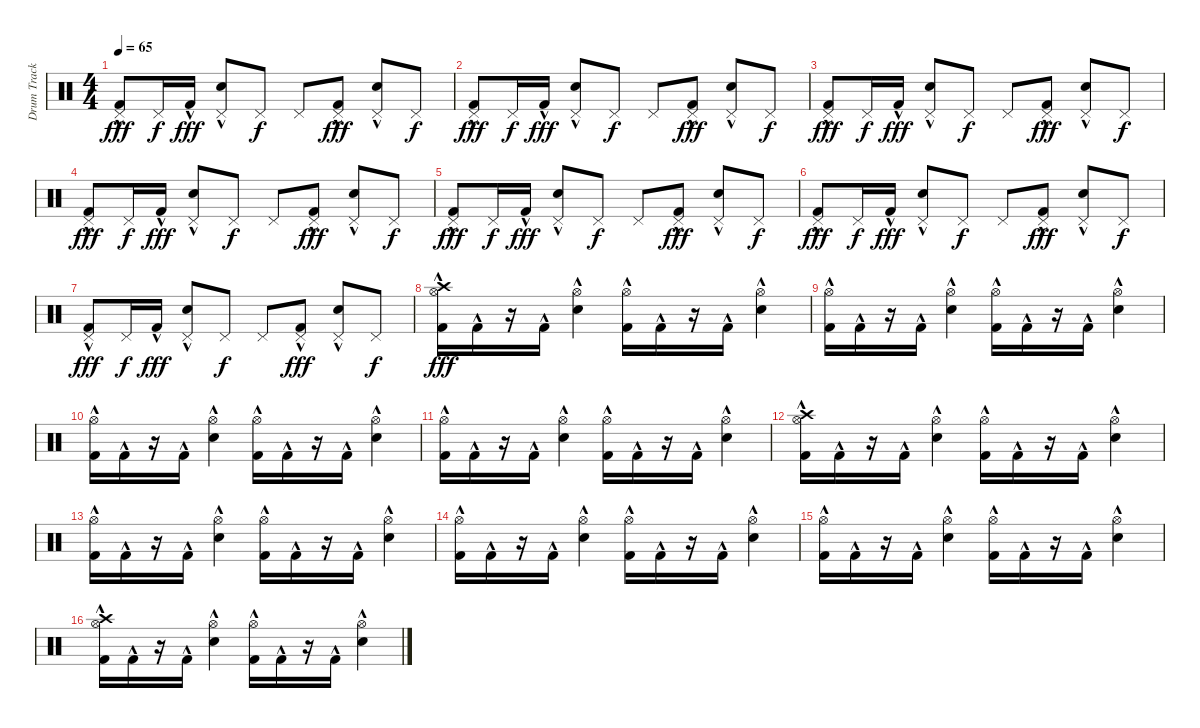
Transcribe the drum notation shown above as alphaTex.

\track ("Drum Track" "Drum Track") {instrument percussion}
\staff {score}
\articulation defaults
\ts (4 4)
\tempo 65
\clef neutral
\ks c
("Pedal Hi-Hat (hit)" "Kick (hit) 2"{hac}).8{dy fff} "Pedal Hi-Hat (hit)".16{dy f} "Kick (hit) 2"{hac}.16{dy fff} ("Pedal Hi-Hat (hit)" "Electric Snare (hit)"{hac}).8 "Pedal Hi-Hat (hit)".8{dy f} "Pedal Hi-Hat (hit)".8 ("Pedal Hi-Hat (hit)" "Kick (hit) 2"{hac}).8{dy fff} ("Pedal Hi-Hat (hit)" "Electric Snare (hit)"{hac}).8 "Pedal Hi-Hat (hit)".8{dy f} |
("Pedal Hi-Hat (hit)" "Kick (hit) 2"{hac}).8{dy fff} "Pedal Hi-Hat (hit)".16{dy f} "Kick (hit) 2"{hac}.16{dy fff} ("Pedal Hi-Hat (hit)" "Electric Snare (hit)"{hac}).8 "Pedal Hi-Hat (hit)".8{dy f} "Pedal Hi-Hat (hit)".8 ("Pedal Hi-Hat (hit)" "Kick (hit) 2"{hac}).8{dy fff} ("Pedal Hi-Hat (hit)" "Electric Snare (hit)"{hac}).8 "Pedal Hi-Hat (hit)".8{dy f} |
("Pedal Hi-Hat (hit)" "Kick (hit) 2"{hac}).8{dy fff} "Pedal Hi-Hat (hit)".16{dy f} "Kick (hit) 2"{hac}.16{dy fff} ("Pedal Hi-Hat (hit)" "Electric Snare (hit)"{hac}).8 "Pedal Hi-Hat (hit)".8{dy f} "Pedal Hi-Hat (hit)".8 ("Pedal Hi-Hat (hit)" "Kick (hit) 2"{hac}).8{dy fff} ("Pedal Hi-Hat (hit)" "Electric Snare (hit)"{hac}).8 "Pedal Hi-Hat (hit)".8{dy f} |
("Pedal Hi-Hat (hit)" "Kick (hit) 2"{hac}).8{dy fff} "Pedal Hi-Hat (hit)".16{dy f} "Kick (hit) 2"{hac}.16{dy fff} ("Pedal Hi-Hat (hit)" "Electric Snare (hit)"{hac}).8 "Pedal Hi-Hat (hit)".8{dy f} "Pedal Hi-Hat (hit)".8 ("Pedal Hi-Hat (hit)" "Kick (hit) 2"{hac}).8{dy fff} ("Pedal Hi-Hat (hit)" "Electric Snare (hit)"{hac}).8 "Pedal Hi-Hat (hit)".8{dy f} |
("Pedal Hi-Hat (hit)" "Kick (hit) 2"{hac}).8{dy fff} "Pedal Hi-Hat (hit)".16{dy f} "Kick (hit) 2"{hac}.16{dy fff} ("Pedal Hi-Hat (hit)" "Electric Snare (hit)"{hac}).8 "Pedal Hi-Hat (hit)".8{dy f} "Pedal Hi-Hat (hit)".8 ("Pedal Hi-Hat (hit)" "Kick (hit) 2"{hac}).8{dy fff} ("Pedal Hi-Hat (hit)" "Electric Snare (hit)"{hac}).8 "Pedal Hi-Hat (hit)".8{dy f} |
("Pedal Hi-Hat (hit)" "Kick (hit) 2"{hac}).8{dy fff} "Pedal Hi-Hat (hit)".16{dy f} "Kick (hit) 2"{hac}.16{dy fff} ("Pedal Hi-Hat (hit)" "Electric Snare (hit)"{hac}).8 "Pedal Hi-Hat (hit)".8{dy f} "Pedal Hi-Hat (hit)".8 ("Pedal Hi-Hat (hit)" "Kick (hit) 2"{hac}).8{dy fff} ("Pedal Hi-Hat (hit)" "Electric Snare (hit)"{hac}).8 "Pedal Hi-Hat (hit)".8{dy f} |
("Pedal Hi-Hat (hit)" "Kick (hit) 2"{hac}).8{dy fff} "Pedal Hi-Hat (hit)".16{dy f} "Kick (hit) 2"{hac}.16{dy fff} ("Pedal Hi-Hat (hit)" "Electric Snare (hit)"{hac}).8 "Pedal Hi-Hat (hit)".8{dy f} "Pedal Hi-Hat (hit)".8 ("Pedal Hi-Hat (hit)" "Kick (hit) 2"{hac}).8{dy fff} ("Pedal Hi-Hat (hit)" "Electric Snare (hit)"{hac}).8 "Pedal Hi-Hat (hit)".8{dy f} |
("Crash high (hit)" "Hi-Hat (open)" "Kick (hit) 2"{hac}).16{dy fff} "Kick (hit) 2"{hac}.16 r.16 "Kick (hit) 2"{hac}.16 ("Hi-Hat (open)" "Electric Snare (hit)"{hac}).4 ("Hi-Hat (open)" "Kick (hit) 2"{hac}).16 "Kick (hit) 2"{hac}.16 r.16 "Kick (hit) 2"{hac}.16 ("Hi-Hat (open)" "Electric Snare (hit)"{hac}).4 |
("Hi-Hat (open)" "Kick (hit) 2"{hac}).16 "Kick (hit) 2"{hac}.16 r.16 "Kick (hit) 2"{hac}.16 ("Hi-Hat (open)" "Electric Snare (hit)"{hac}).4 ("Hi-Hat (open)" "Kick (hit) 2"{hac}).16 "Kick (hit) 2"{hac}.16 r.16 "Kick (hit) 2"{hac}.16 ("Hi-Hat (open)" "Electric Snare (hit)"{hac}).4 |
("Hi-Hat (open)" "Kick (hit) 2"{hac}).16 "Kick (hit) 2"{hac}.16 r.16 "Kick (hit) 2"{hac}.16 ("Hi-Hat (open)" "Electric Snare (hit)"{hac}).4 ("Hi-Hat (open)" "Kick (hit) 2"{hac}).16 "Kick (hit) 2"{hac}.16 r.16 "Kick (hit) 2"{hac}.16 ("Hi-Hat (open)" "Electric Snare (hit)"{hac}).4 |
("Hi-Hat (open)" "Kick (hit) 2"{hac}).16 "Kick (hit) 2"{hac}.16 r.16 "Kick (hit) 2"{hac}.16 ("Hi-Hat (open)" "Electric Snare (hit)"{hac}).4 ("Hi-Hat (open)" "Kick (hit) 2"{hac}).16 "Kick (hit) 2"{hac}.16 r.16 "Kick (hit) 2"{hac}.16 ("Hi-Hat (open)" "Electric Snare (hit)"{hac}).4 |
("Crash high (hit)" "Hi-Hat (open)" "Kick (hit) 2"{hac}).16 "Kick (hit) 2"{hac}.16 r.16 "Kick (hit) 2"{hac}.16 ("Hi-Hat (open)" "Electric Snare (hit)"{hac}).4 ("Hi-Hat (open)" "Kick (hit) 2"{hac}).16 "Kick (hit) 2"{hac}.16 r.16 "Kick (hit) 2"{hac}.16 ("Hi-Hat (open)" "Electric Snare (hit)"{hac}).4 |
("Hi-Hat (open)" "Kick (hit) 2"{hac}).16 "Kick (hit) 2"{hac}.16 r.16 "Kick (hit) 2"{hac}.16 ("Hi-Hat (open)" "Electric Snare (hit)"{hac}).4 ("Hi-Hat (open)" "Kick (hit) 2"{hac}).16 "Kick (hit) 2"{hac}.16 r.16 "Kick (hit) 2"{hac}.16 ("Hi-Hat (open)" "Electric Snare (hit)"{hac}).4 |
("Hi-Hat (open)" "Kick (hit) 2"{hac}).16 "Kick (hit) 2"{hac}.16 r.16 "Kick (hit) 2"{hac}.16 ("Hi-Hat (open)" "Electric Snare (hit)"{hac}).4 ("Hi-Hat (open)" "Kick (hit) 2"{hac}).16 "Kick (hit) 2"{hac}.16 r.16 "Kick (hit) 2"{hac}.16 ("Hi-Hat (open)" "Electric Snare (hit)"{hac}).4 |
("Hi-Hat (open)" "Kick (hit) 2"{hac}).16 "Kick (hit) 2"{hac}.16 r.16 "Kick (hit) 2"{hac}.16 ("Hi-Hat (open)" "Electric Snare (hit)"{hac}).4 ("Hi-Hat (open)" "Kick (hit) 2"{hac}).16 "Kick (hit) 2"{hac}.16 r.16 "Kick (hit) 2"{hac}.16 ("Hi-Hat (open)" "Electric Snare (hit)"{hac}).4 |
("Crash high (hit)" "Hi-Hat (open)" "Kick (hit) 2"{hac}).16 "Kick (hit) 2"{hac}.16 r.16 "Kick (hit) 2"{hac}.16 ("Hi-Hat (open)" "Electric Snare (hit)"{hac}).4 ("Hi-Hat (open)" "Kick (hit) 2"{hac}).16 "Kick (hit) 2"{hac}.16 r.16 "Kick (hit) 2"{hac}.16 ("Hi-Hat (open)" "Electric Snare (hit)"{hac}).4
